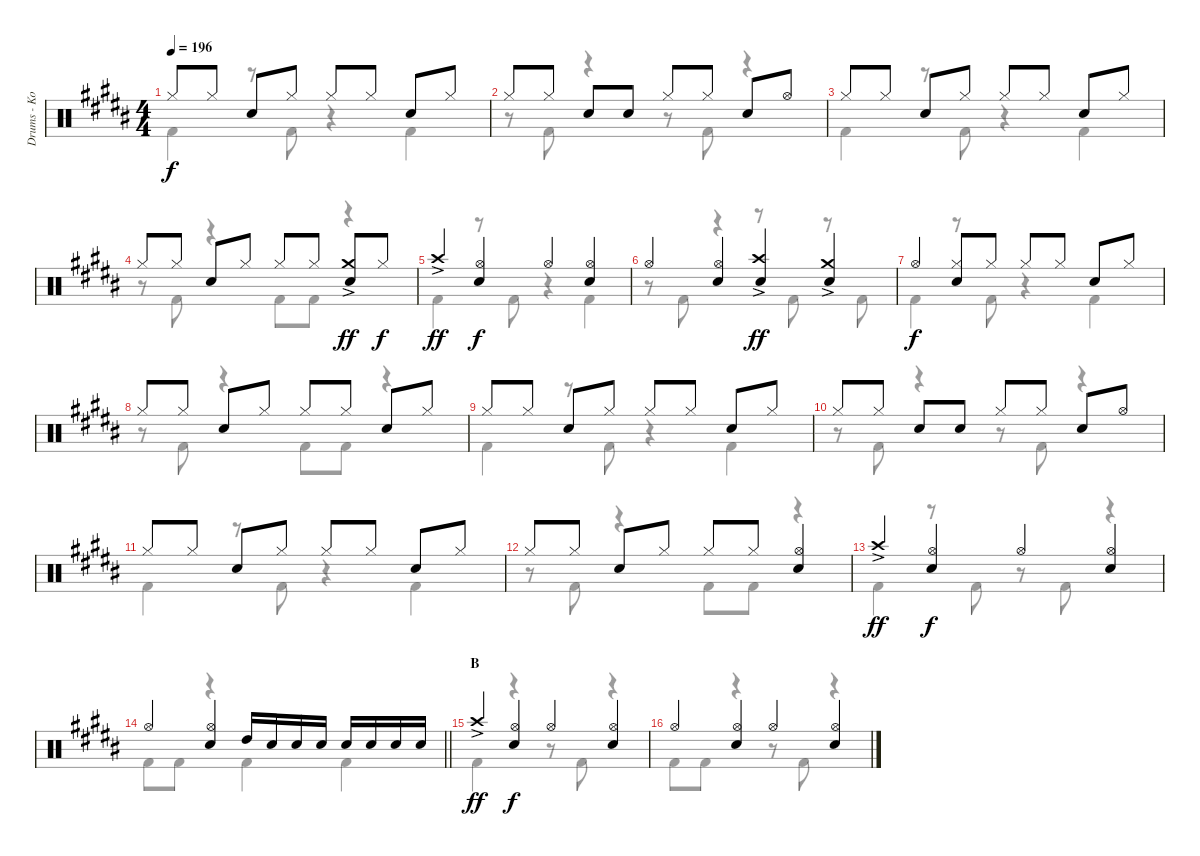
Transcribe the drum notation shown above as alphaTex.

\track ("Drums - Koji Hasegawa" "Drums - Ko") {instrument percussion}
\staff {score}
\articulation defaults
\voice
\ts (4 4)
\tempo 196
\clef neutral
\ks b "Hi-Hat (closed)".8{dy f} "Hi-Hat (closed)".8 "Snare (hit) 2".8 "Hi-Hat (closed)".8 "Hi-Hat (closed)".8 "Hi-Hat (closed)".8 "Snare (hit) 2".8 "Hi-Hat (closed)".8
|
"Hi-Hat (closed)".8 "Hi-Hat (closed)".8 "Snare (hit) 2".8 "Snare (hit) 2".8 "Hi-Hat (closed)".8 "Hi-Hat (closed)".8 "Snare (hit) 2".8 "Hi-Hat (open)".8 |
"Hi-Hat (closed)".8 "Hi-Hat (closed)".8 "Snare (hit) 2".8 "Hi-Hat (closed)".8 "Hi-Hat (closed)".8 "Hi-Hat (closed)".8 "Snare (hit) 2".8 "Hi-Hat (closed)".8 |
"Hi-Hat (closed)".8 "Hi-Hat (closed)".8 "Snare (hit) 2".8 "Hi-Hat (closed)".8 "Hi-Hat (closed)".8 "Hi-Hat (closed)".8 ("Crash medium (hit)"{ac} "Snare (hit) 2").8{dy ff} "Hi-Hat (closed)".8{dy f} |
"Crash high (hit)"{ac}.4{dy ff} ("Hi-Hat (open)" "Snare (hit) 2").4{dy f} "Hi-Hat (open)".4 ("Hi-Hat (open)" "Snare (hit) 2").4 |
"Hi-Hat (open)".4 ("Hi-Hat (open)" "Snare (hit) 2").4 ("Crash high (hit)"{ac} "Snare (hit) 2").4{dy ff} ("Crash medium (hit)"{ac} "Snare (hit) 2").4 |
"Hi-Hat (open)".4{dy f} ("Hi-Hat (closed)" "Snare (hit) 2").8 "Hi-Hat (closed)".8 "Hi-Hat (closed)".8 "Hi-Hat (closed)".8 "Snare (hit) 2".8 "Hi-Hat (closed)".8 |
"Hi-Hat (closed)".8 "Hi-Hat (closed)".8 "Snare (hit) 2".8 "Hi-Hat (closed)".8 "Hi-Hat (closed)".8 "Hi-Hat (closed)".8 "Snare (hit) 2".8 "Hi-Hat (closed)".8 |
"Hi-Hat (closed)".8 "Hi-Hat (closed)".8 "Snare (hit) 2".8 "Hi-Hat (closed)".8 "Hi-Hat (closed)".8 "Hi-Hat (closed)".8 "Snare (hit) 2".8 "Hi-Hat (closed)".8 |
"Hi-Hat (closed)".8 "Hi-Hat (closed)".8 "Snare (hit) 2".8 "Snare (hit) 2".8 "Hi-Hat (closed)".8 "Hi-Hat (closed)".8 "Snare (hit) 2".8 "Hi-Hat (open)".8 |
"Hi-Hat (closed)".8 "Hi-Hat (closed)".8 "Snare (hit) 2".8 "Hi-Hat (closed)".8 "Hi-Hat (closed)".8 "Hi-Hat (closed)".8 "Snare (hit) 2".8 "Hi-Hat (closed)".8 |
"Hi-Hat (closed)".8 "Hi-Hat (closed)".8 "Snare (hit) 2".8 "Hi-Hat (closed)".8 "Hi-Hat (closed)".8 "Hi-Hat (closed)".8 ("Hi-Hat (open)" "Snare (hit) 2").4 |
"Crash high (hit)"{ac}.4{dy ff} ("Hi-Hat (open)" "Snare (hit) 2").4{dy f} "Hi-Hat (open)".4 ("Hi-Hat (open)" "Snare (hit) 2").4 |
\barLineRight lightlight "Hi-Hat (open)".4
("Hi-Hat (open)" "Snare (hit) 2").4 "High Tom (hit)".16 "Snare (hit) 2".16 "Snare (hit) 2".16 "Snare (hit) 2".16 "Snare (hit) 2".16 "Snare (hit) 2".16 "Snare (hit) 2".16 "Snare (hit) 2".16 |
\section ("" "B")
"Crash high (hit)"{ac}.4{dy ff} ("Hi-Hat (open)" "Snare (hit) 2").4{dy f} "Hi-Hat (open)".4 ("Hi-Hat (open)" "Snare (hit) 2").4 |
"Hi-Hat (open)".4 ("Hi-Hat (open)" "Snare (hit) 2").4 "Hi-Hat (open)".4 ("Hi-Hat (open)" "Snare (hit) 2").4
\voice
\clef neutral
\ottava regular
\simile none
\ks b "Kick (hit) 2".4{dy f}
r.8 "Kick (hit) 2".8 r.4 "Kick (hit) 2".4 |
r.8 "Kick (hit) 2".8 r.4 r.8 "Kick (hit) 2".8 r.4 |
"Kick (hit) 2".4 r.8 "Kick (hit) 2".8 r.4 "Kick (hit) 2".4 |
r.8 "Kick (hit) 2".8 r.4 "Kick (hit) 2".8 "Kick (hit) 2".8 r.4 |
"Kick (hit) 2".4 r.8 "Kick (hit) 2".8 r.4 "Kick (hit) 2".4 |
r.8 "Kick (hit) 2".8 r.4 r.8 "Kick (hit) 2".8 r.8 "Kick (hit) 2".8 |
"Kick (hit) 2".4 r.8 "Kick (hit) 2".8 r.4 "Kick (hit) 2".4 |
r.8 "Kick (hit) 2".8 r.4 "Kick (hit) 2".8 "Kick (hit) 2".8 r.4 |
"Kick (hit) 2".4 r.8 "Kick (hit) 2".8 r.4 "Kick (hit) 2".4 |
r.8 "Kick (hit) 2".8 r.4 r.8 "Kick (hit) 2".8 r.4 |
"Kick (hit) 2".4 r.8 "Kick (hit) 2".8 r.4 "Kick (hit) 2".4 |
r.8 "Kick (hit) 2".8 r.4 "Kick (hit) 2".8 "Kick (hit) 2".8 r.4 |
"Kick (hit) 2".4 r.8 "Kick (hit) 2".8 r.8 "Kick (hit) 2".8 r.4 |
\barLineRight lightlight "Kick (hit) 2".8 "Kick (hit) 2".8
r.4 "Kick (hit) 2".4 "Kick (hit) 2".4 |
"Kick (hit) 2".4 r.4 r.8 "Kick (hit) 2".8 r.4 |
"Kick (hit) 2".8 "Kick (hit) 2".8 r.4 r.8 "Kick (hit) 2".8 r.4
